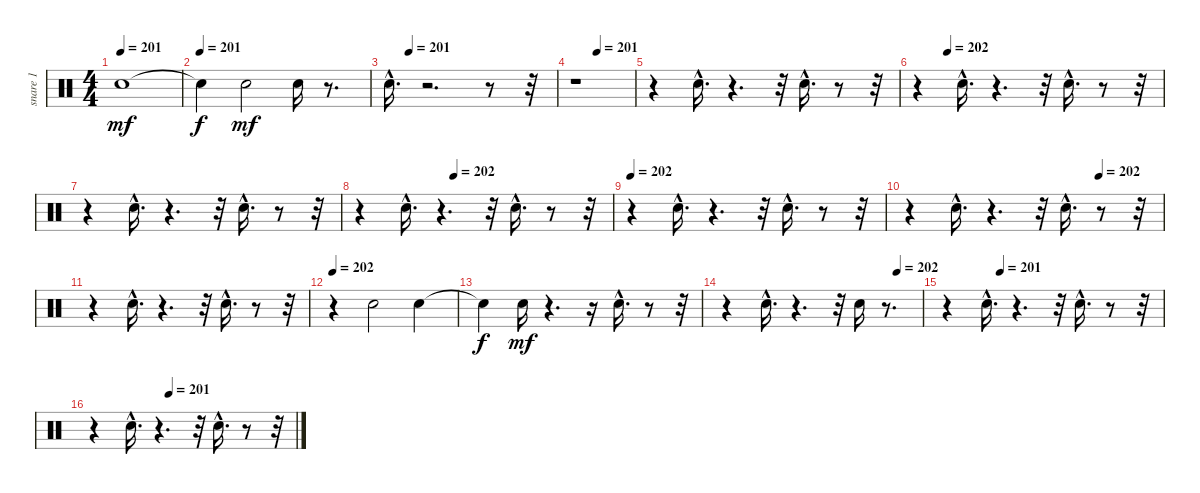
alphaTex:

\track ("snare 1" "snare 1") {instrument percussion}
\staff {score}
\articulation defaults
\ts (4 4)
\tempo 201
\clef neutral
\ks c "Snare (hit) 2".1{dy mf}
|
\tempo (201)
"Snare (hit)"{t}.4{dy f} "Snare (hit) 2".2{dy mf} "Snare (hit) 2".16 r.8{d} |
\tempo (201 0.125)
"Snare (hit) 2"{hac}.16{d} r.2{d} r.8 r.32 |
\tempo (201 0.375)
r.1 |
r.4 "Snare (hit) 2"{hac}.16{d} r.4{d} r.32 "Snare (hit) 2"{hac}.16{d} r.8 r.32 |
\tempo (202 0.125)
r.4 "Snare (hit) 2"{hac}.16{d} r.4{d} r.32 "Snare (hit) 2"{hac}.16{d} r.8 r.32 |
r.4 "Snare (hit) 2"{hac}.16{d} r.4{d} r.32 "Snare (hit) 2"{hac}.16{d} r.8 r.32 |
\tempo (202 0.375)
r.4 "Snare (hit) 2"{hac}.16{d} r.4{d} r.32 "Snare (hit) 2"{hac}.16{d} r.8 r.32 |
\tempo 202
r.4 "Snare (hit) 2"{hac}.16{d} r.4{d} r.32 "Snare (hit) 2"{hac}.16{d} r.8 r.32 |
\tempo (202 0.75)
r.4 "Snare (hit) 2"{hac}.16{d} r.4{d} r.32 "Snare (hit) 2"{hac}.16{d} r.8 r.32 |
r.4 "Snare (hit) 2"{hac}.16{d} r.4{d} r.32 "Snare (hit) 2"{hac}.16{d} r.8 r.32 |
\tempo 202
r.4 "Snare (hit) 2".2 "Snare (hit) 2".4 |
"Snare (hit)"{t}.4{dy f} "Snare (hit) 2".16{dy mf} r.4{d} r.16 "Snare (hit) 2"{hac}.16{d} r.8 r.32 |
\tempo (202 0.875)
r.4 "Snare (hit) 2"{hac}.16{d} r.4{d} r.32 "Snare (hit) 2".16 r.8{d} |
\tempo (201 0.25)
r.4 "Snare (hit) 2"{hac}.16{d} r.4{d} r.32 "Snare (hit) 2"{hac}.16{d} r.8 r.32 |
\tempo (201 0.375)
r.4 "Snare (hit) 2"{hac}.16{d} r.4{d} r.32 "Snare (hit) 2"{hac}.16{d} r.8 r.32
